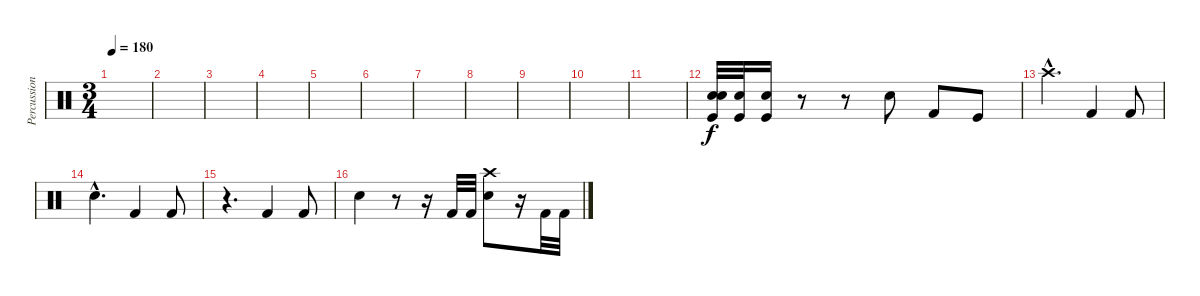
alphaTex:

\track ("Percussion" "Percussion") {instrument percussion}
\staff {score}
\articulation defaults
\ts (3 4)
\tempo 180
\clef neutral
\ks c
|
|
|
|
|
|
|
|
|
|
|
("Kick (hit)" "Snare (hit) 2" "Snare (hit) 2").32 ("Kick (hit)" "Snare (hit) 2").32 ("Kick (hit)" "Snare (hit) 2").16 r.8 r.8 "Snare (hit) 2".8 "Kick (hit) 2".8 "Kick (hit)".8 |
"Crash high (hit)"{hac}.4{d} "Kick (hit) 2".4 "Kick (hit) 2".8 |
"Snare (hit) 2"{hac}.4{d} "Kick (hit) 2".4 "Kick (hit) 2".8 |
r.4{d} "Kick (hit) 2".4 "Kick (hit) 2".8 |
"Snare (hit) 2".4 r.8 r.16 "Kick (hit) 2".32 "Kick (hit) 2".32 ("Crash high (hit)" "Snare (hit) 2").8 r.16 "Kick (hit) 2".32 "Kick (hit) 2".32
